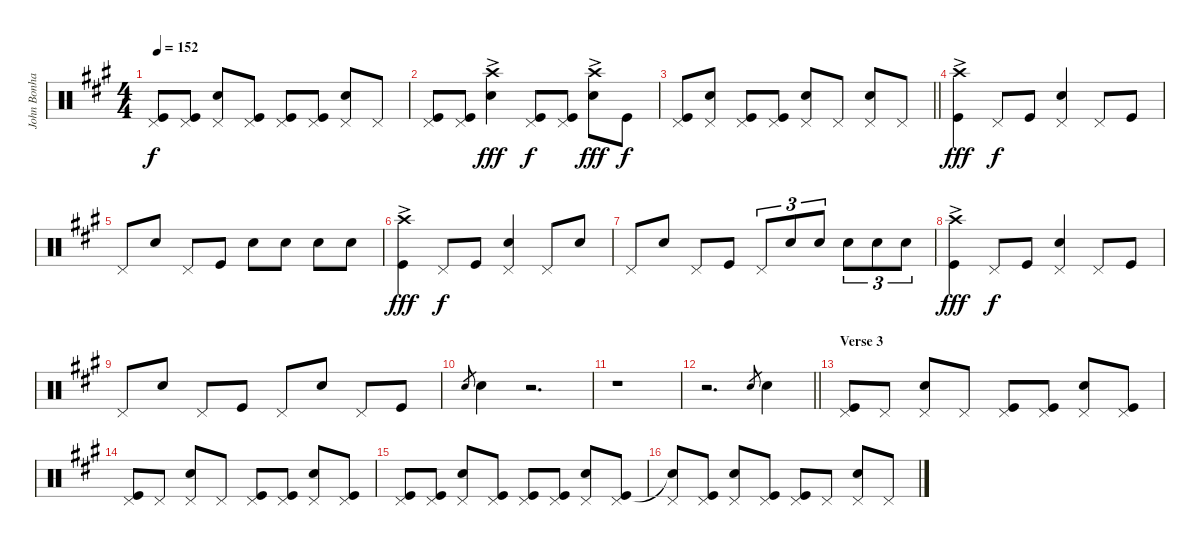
\track ("John Bonham" "John Bonha") {instrument percussion}
\staff {score}
\articulation defaults
\ts (4 4)
\tempo 152
\clef neutral
\ks a
("Pedal Hi-Hat (hit)" "Kick (hit)").8{dy f} ("Pedal Hi-Hat (hit)" "Kick (hit)").8 ("Pedal Hi-Hat (hit)" "Snare (hit) 2").8 ("Pedal Hi-Hat (hit)" "Kick (hit)").8 ("Pedal Hi-Hat (hit)" "Kick (hit)").8 ("Pedal Hi-Hat (hit)" "Kick (hit)").8 ("Pedal Hi-Hat (hit)" "Snare (hit) 2").8 "Pedal Hi-Hat (hit)".8 |
("Pedal Hi-Hat (hit)" "Kick (hit)").8 ("Pedal Hi-Hat (hit)" "Kick (hit)").8 ("Crash high (hit)"{ac} "Snare (hit) 2").4{dy fff} ("Pedal Hi-Hat (hit)" "Kick (hit)").8{dy f} ("Pedal Hi-Hat (hit)" "Kick (hit)").8 ("Crash high (hit)"{ac} "Snare (hit) 2").8{dy fff} "Kick (hit)".8{dy f} |
\barLineRight lightlight
("Pedal Hi-Hat (hit)" "Kick (hit)").8 ("Pedal Hi-Hat (hit)" "Snare (hit) 2").8 ("Pedal Hi-Hat (hit)" "Kick (hit)").8 ("Pedal Hi-Hat (hit)" "Kick (hit)").8 ("Pedal Hi-Hat (hit)" "Snare (hit) 2").8 "Pedal Hi-Hat (hit)".8 ("Pedal Hi-Hat (hit)" "Snare (hit) 2").8 "Pedal Hi-Hat (hit)".8 |
("Crash high (hit)"{ac} "Kick (hit)").4{dy fff} "Pedal Hi-Hat (hit)".8{dy f} "Kick (hit)".8 ("Pedal Hi-Hat (hit)" "Snare (hit) 2").4 "Pedal Hi-Hat (hit)".8 "Kick (hit)".8 |
"Pedal Hi-Hat (hit)".8 "Snare (hit) 2".8 "Pedal Hi-Hat (hit)".8 "Kick (hit)".8 "Snare (hit) 2".8 "Snare (hit) 2".8 "Snare (hit) 2".8 "Snare (hit) 2".8 |
("Crash high (hit)"{ac} "Kick (hit)").4{dy fff} "Pedal Hi-Hat (hit)".8{dy f} "Kick (hit)".8 ("Pedal Hi-Hat (hit)" "Snare (hit) 2").4 "Pedal Hi-Hat (hit)".8 "Snare (hit) 2".8 |
"Pedal Hi-Hat (hit)".8 "Snare (hit) 2".8 "Pedal Hi-Hat (hit)".8 "Kick (hit)".8 "Pedal Hi-Hat (hit)".8{tu (3 2)} "Snare (hit) 2".8{tu (3 2)} "Snare (hit) 2".8{tu (3 2)} "Snare (hit) 2".8{tu (3 2)} "Snare (hit) 2".8{tu (3 2)} "Snare (hit) 2".8{tu (3 2)} |
("Crash high (hit)"{ac} "Kick (hit)").4{dy fff} "Pedal Hi-Hat (hit)".8{dy f} "Kick (hit)".8 ("Pedal Hi-Hat (hit)" "Snare (hit) 2").4 "Pedal Hi-Hat (hit)".8 "Kick (hit)".8 |
"Pedal Hi-Hat (hit)".8 "Snare (hit) 2".8 "Pedal Hi-Hat (hit)".8 "Kick (hit)".8 "Pedal Hi-Hat (hit)".8 "Snare (hit) 2".8 "Pedal Hi-Hat (hit)".8 "Kick (hit)".8 |
"Snare (hit) 2".8{gr} "Snare (hit) 2".4 r.2{d} |
r.1 |
\barLineRight lightlight
r.2{d} "Snare (hit) 2".8{gr} "Snare (hit) 2".4 |
\section ("" "Verse 3")
("Pedal Hi-Hat (hit)" "Kick (hit)").8 "Pedal Hi-Hat (hit)".8 ("Pedal Hi-Hat (hit)" "Snare (hit) 2").8 "Pedal Hi-Hat (hit)".8 ("Pedal Hi-Hat (hit)" "Kick (hit)").8 ("Pedal Hi-Hat (hit)" "Kick (hit)").8 ("Pedal Hi-Hat (hit)" "Snare (hit) 2").8 ("Pedal Hi-Hat (hit)" "Kick (hit)").8 |
("Pedal Hi-Hat (hit)" "Kick (hit)").8 "Pedal Hi-Hat (hit)".8 ("Pedal Hi-Hat (hit)" "Snare (hit) 2").8 "Pedal Hi-Hat (hit)".8 ("Pedal Hi-Hat (hit)" "Kick (hit)").8 ("Pedal Hi-Hat (hit)" "Kick (hit)").8 ("Pedal Hi-Hat (hit)" "Snare (hit) 2").8 ("Pedal Hi-Hat (hit)" "Kick (hit)").8 |
("Pedal Hi-Hat (hit)" "Kick (hit)").8 ("Pedal Hi-Hat (hit)" "Kick (hit)").8 ("Pedal Hi-Hat (hit)" "Snare (hit) 2").8 ("Pedal Hi-Hat (hit)" "Kick (hit)").8 ("Pedal Hi-Hat (hit)" "Kick (hit)").8 ("Pedal Hi-Hat (hit)" "Kick (hit)").8 ("Pedal Hi-Hat (hit)" "Snare (hit) 2").8 ("Pedal Hi-Hat (hit)" "Kick (hit)").8 |
("Pedal Hi-Hat (hit)" "Snare (hit)"{t}).8 ("Pedal Hi-Hat (hit)" "Kick (hit)").8 ("Pedal Hi-Hat (hit)" "Snare (hit) 2").8 ("Pedal Hi-Hat (hit)" "Kick (hit)").8 ("Pedal Hi-Hat (hit)" "Kick (hit)").8 "Pedal Hi-Hat (hit)".8 ("Pedal Hi-Hat (hit)" "Snare (hit) 2").8 "Pedal Hi-Hat (hit)".8
